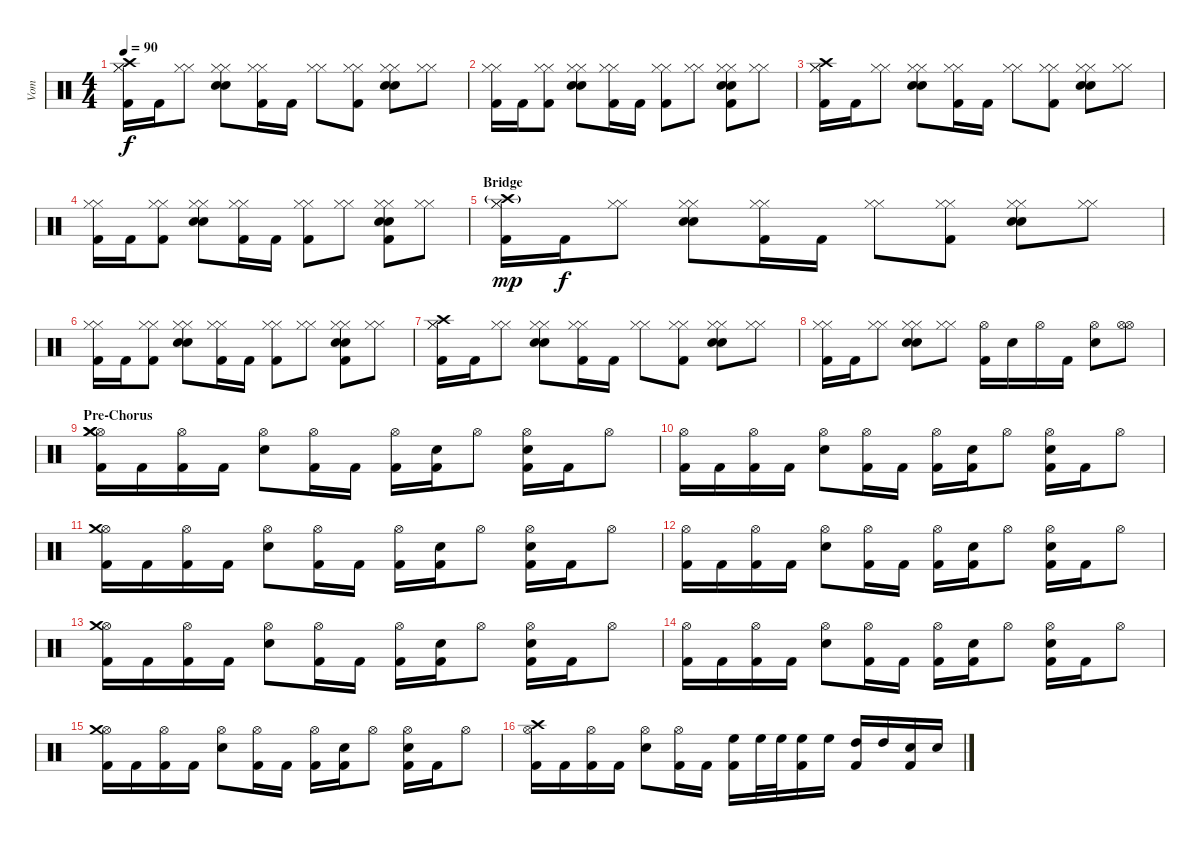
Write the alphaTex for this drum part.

\track ("Vom" "Vom") {instrument percussion}
\staff {score}
\articulation defaults
\ts (4 4)
\tempo 90
\clef neutral
\ks c
("Crash high (hit)" "Hi-Hat (closed)" "Hi-Hat (closed)" "Kick (hit) 2").16{dy f} "Kick (hit) 2".16 ("Hi-Hat (closed)" "Hi-Hat (closed)").8 ("Snare (hit) 2" "Snare (hit) 2" "Hi-Hat (closed)" "Hi-Hat (closed)").8 ("Hi-Hat (closed)" "Hi-Hat (closed)" "Kick (hit) 2").16 "Kick (hit) 2".16 ("Hi-Hat (closed)" "Hi-Hat (closed)").8 ("Hi-Hat (closed)" "Hi-Hat (closed)" "Kick (hit) 2").8 ("Snare (hit) 2" "Snare (hit) 2" "Hi-Hat (closed)" "Hi-Hat (closed)").8 ("Hi-Hat (closed)" "Hi-Hat (closed)").8 |
("Hi-Hat (closed)" "Hi-Hat (closed)" "Kick (hit) 2").16 "Kick (hit) 2".16 ("Hi-Hat (closed)" "Hi-Hat (closed)" "Kick (hit) 2").8 ("Snare (hit) 2" "Snare (hit) 2" "Hi-Hat (closed)" "Hi-Hat (closed)").8 ("Hi-Hat (closed)" "Hi-Hat (closed)" "Kick (hit) 2").16 "Kick (hit) 2".16 ("Hi-Hat (closed)" "Hi-Hat (closed)" "Kick (hit) 2").8 ("Hi-Hat (closed)" "Hi-Hat (closed)").8 ("Snare (hit) 2" "Snare (hit) 2" "Hi-Hat (closed)" "Hi-Hat (closed)" "Kick (hit) 2").8 ("Hi-Hat (closed)" "Hi-Hat (closed)").8 |
("Crash high (hit)" "Hi-Hat (closed)" "Hi-Hat (closed)" "Kick (hit) 2").16 "Kick (hit) 2".16 ("Hi-Hat (closed)" "Hi-Hat (closed)").8 ("Snare (hit) 2" "Snare (hit) 2" "Hi-Hat (closed)" "Hi-Hat (closed)").8 ("Hi-Hat (closed)" "Hi-Hat (closed)" "Kick (hit) 2").16 "Kick (hit) 2".16 ("Hi-Hat (closed)" "Hi-Hat (closed)").8 ("Hi-Hat (closed)" "Hi-Hat (closed)" "Kick (hit) 2").8 ("Snare (hit) 2" "Snare (hit) 2" "Hi-Hat (closed)" "Hi-Hat (closed)").8 ("Hi-Hat (closed)" "Hi-Hat (closed)").8 |
("Hi-Hat (closed)" "Hi-Hat (closed)" "Kick (hit) 2").16 "Kick (hit) 2".16 ("Hi-Hat (closed)" "Hi-Hat (closed)" "Kick (hit) 2").8 ("Snare (hit) 2" "Snare (hit) 2" "Hi-Hat (closed)" "Hi-Hat (closed)").8 ("Hi-Hat (closed)" "Hi-Hat (closed)" "Kick (hit) 2").16 "Kick (hit) 2".16 ("Hi-Hat (closed)" "Hi-Hat (closed)" "Kick (hit) 2").8 ("Hi-Hat (closed)" "Hi-Hat (closed)").8 ("Snare (hit) 2" "Snare (hit) 2" "Hi-Hat (closed)" "Hi-Hat (closed)" "Kick (hit) 2").8 ("Hi-Hat (closed)" "Hi-Hat (closed)").8 |
\section ("" "Bridge")
("Crash high (hit)"{g} "Hi-Hat (closed)" "Hi-Hat (closed)" "Kick (hit) 2").16{dy mp} "Kick (hit) 2".16{dy f} ("Hi-Hat (closed)" "Hi-Hat (closed)").8 ("Snare (hit) 2" "Snare (hit) 2" "Hi-Hat (closed)" "Hi-Hat (closed)").8 ("Hi-Hat (closed)" "Hi-Hat (closed)" "Kick (hit) 2").16 "Kick (hit) 2".16 ("Hi-Hat (closed)" "Hi-Hat (closed)").8 ("Hi-Hat (closed)" "Hi-Hat (closed)" "Kick (hit) 2").8 ("Snare (hit) 2" "Snare (hit) 2" "Hi-Hat (closed)" "Hi-Hat (closed)").8 ("Hi-Hat (closed)" "Hi-Hat (closed)").8 |
("Hi-Hat (closed)" "Hi-Hat (closed)" "Kick (hit) 2").16 "Kick (hit) 2".16 ("Hi-Hat (closed)" "Hi-Hat (closed)" "Kick (hit) 2").8 ("Snare (hit) 2" "Snare (hit) 2" "Hi-Hat (closed)" "Hi-Hat (closed)").8 ("Hi-Hat (closed)" "Hi-Hat (closed)" "Kick (hit) 2").16 "Kick (hit) 2".16 ("Hi-Hat (closed)" "Hi-Hat (closed)" "Kick (hit) 2").8 ("Hi-Hat (closed)" "Hi-Hat (closed)").8 ("Snare (hit) 2" "Snare (hit) 2" "Hi-Hat (closed)" "Hi-Hat (closed)" "Kick (hit) 2").8 ("Hi-Hat (closed)" "Hi-Hat (closed)").8 |
("Crash high (hit)" "Hi-Hat (closed)" "Hi-Hat (closed)" "Kick (hit) 2").16 "Kick (hit) 2".16 ("Hi-Hat (closed)" "Hi-Hat (closed)").8 ("Snare (hit) 2" "Snare (hit) 2" "Hi-Hat (closed)" "Hi-Hat (closed)").8 ("Hi-Hat (closed)" "Hi-Hat (closed)" "Kick (hit) 2").16 "Kick (hit) 2".16 ("Hi-Hat (closed)" "Hi-Hat (closed)").8 ("Hi-Hat (closed)" "Hi-Hat (closed)" "Kick (hit) 2").8 ("Snare (hit) 2" "Snare (hit) 2" "Hi-Hat (closed)" "Hi-Hat (closed)").8 ("Hi-Hat (closed)" "Hi-Hat (closed)").8 |
("Hi-Hat (closed)" "Hi-Hat (closed)" "Kick (hit) 2").16 "Kick (hit) 2".16 ("Hi-Hat (closed)" "Hi-Hat (closed)").8 ("Snare (hit) 2" "Snare (hit) 2" "Hi-Hat (closed)" "Hi-Hat (closed)").8 ("Hi-Hat (closed)" "Hi-Hat (closed)").8 ("Hi-Hat (open)" "Kick (hit) 2").16 "Snare (hit) 2".16 "Hi-Hat (open)".16 "Kick (hit) 2".16 ("Snare (hit) 2" "Hi-Hat (open)").8 ("Hi-Hat (open)" "Hi-Hat (open)").8 |
\section ("" "Pre-Chorus")
("Hi-Hat (open)" "Crash medium (hit)" "Crash medium (hit)" "Kick (hit) 2").16 "Kick (hit) 2".16 ("Hi-Hat (open)" "Kick (hit) 2").16 "Kick (hit) 2".16 ("Hi-Hat (open)" "Snare (hit) 2").8 ("Hi-Hat (open)" "Kick (hit) 2").16 "Kick (hit) 2".16 ("Hi-Hat (open)" "Kick (hit) 2").16 ("Snare (hit) 2" "Kick (hit) 2").16 "Hi-Hat (open)".8 ("Hi-Hat (open)" "Snare (hit) 2" "Kick (hit) 2").16 "Kick (hit) 2".16 "Hi-Hat (open)".8 |
("Hi-Hat (open)" "Kick (hit) 2").16 "Kick (hit) 2".16 ("Hi-Hat (open)" "Kick (hit) 2").16 "Kick (hit) 2".16 ("Hi-Hat (open)" "Snare (hit) 2").8 ("Hi-Hat (open)" "Kick (hit) 2").16 "Kick (hit) 2".16 ("Hi-Hat (open)" "Kick (hit) 2").16 ("Snare (hit) 2" "Kick (hit) 2").16 "Hi-Hat (open)".8 ("Hi-Hat (open)" "Snare (hit) 2" "Kick (hit) 2").16 "Kick (hit) 2".16 "Hi-Hat (open)".8 |
("Hi-Hat (open)" "Crash medium (hit)" "Kick (hit) 2").16 "Kick (hit) 2".16 ("Hi-Hat (open)" "Kick (hit) 2").16 "Kick (hit) 2".16 ("Hi-Hat (open)" "Snare (hit) 2").8 ("Hi-Hat (open)" "Kick (hit) 2").16 "Kick (hit) 2".16 ("Hi-Hat (open)" "Kick (hit) 2").16 ("Snare (hit) 2" "Kick (hit) 2").16 "Hi-Hat (open)".8 ("Hi-Hat (open)" "Snare (hit) 2" "Kick (hit) 2").16 "Kick (hit) 2".16 "Hi-Hat (open)".8 |
("Hi-Hat (open)" "Kick (hit) 2").16 "Kick (hit) 2".16 ("Hi-Hat (open)" "Kick (hit) 2").16 "Kick (hit) 2".16 ("Hi-Hat (open)" "Snare (hit) 2").8 ("Hi-Hat (open)" "Kick (hit) 2").16 "Kick (hit) 2".16 ("Hi-Hat (open)" "Kick (hit) 2").16 ("Snare (hit) 2" "Kick (hit) 2").16 "Hi-Hat (open)".8 ("Hi-Hat (open)" "Snare (hit) 2" "Kick (hit) 2").16 "Kick (hit) 2".16 "Hi-Hat (open)".8 |
("Hi-Hat (open)" "Crash medium (hit)" "Kick (hit) 2").16 "Kick (hit) 2".16 ("Hi-Hat (open)" "Kick (hit) 2").16 "Kick (hit) 2".16 ("Hi-Hat (open)" "Snare (hit) 2").8 ("Hi-Hat (open)" "Kick (hit) 2").16 "Kick (hit) 2".16 ("Hi-Hat (open)" "Kick (hit) 2").16 ("Snare (hit) 2" "Kick (hit) 2").16 "Hi-Hat (open)".8 ("Hi-Hat (open)" "Snare (hit) 2" "Kick (hit) 2").16 "Kick (hit) 2".16 "Hi-Hat (open)".8 |
("Hi-Hat (open)" "Kick (hit) 2").16 "Kick (hit) 2".16 ("Hi-Hat (open)" "Kick (hit) 2").16 "Kick (hit) 2".16 ("Hi-Hat (open)" "Snare (hit) 2").8 ("Hi-Hat (open)" "Kick (hit) 2").16 "Kick (hit) 2".16 ("Hi-Hat (open)" "Kick (hit) 2").16 ("Snare (hit) 2" "Kick (hit) 2").16 "Hi-Hat (open)".8 ("Hi-Hat (open)" "Snare (hit) 2" "Kick (hit) 2").16 "Kick (hit) 2".16 "Hi-Hat (open)".8 |
("Hi-Hat (open)" "Crash medium (hit)" "Kick (hit) 2").16 "Kick (hit) 2".16 ("Hi-Hat (open)" "Kick (hit) 2").16 "Kick (hit) 2".16 ("Hi-Hat (open)" "Snare (hit) 2").8 ("Hi-Hat (open)" "Kick (hit) 2").16 "Kick (hit) 2".16 ("Hi-Hat (open)" "Kick (hit) 2").16 ("Snare (hit) 2" "Kick (hit) 2").16 "Hi-Hat (open)".8 ("Hi-Hat (open)" "Snare (hit) 2" "Kick (hit) 2").16 "Kick (hit) 2".16 "Hi-Hat (open)".8 |
("Hi-Hat (open)" "Crash high (hit)" "Kick (hit) 2").16 "Kick (hit) 2".16 ("Hi-Hat (open)" "Kick (hit) 2").16 "Kick (hit) 2".16 ("Hi-Hat (open)" "Snare (hit) 2").8 ("Hi-Hat (open)" "Kick (hit) 2").16 "Kick (hit) 2".16 ("High Floor Tom (hit)" "Kick (hit) 2").16 "High Floor Tom (hit)".32 "High Floor Tom (hit)".32 ("High Floor Tom (hit)" "Kick (hit) 2").16 "High Floor Tom (hit)".16 ("High Tom (hit)" "Kick (hit) 2").16 "High Tom (hit)".16 ("Electric Snare (hit)" "Kick (hit) 2").16 "Electric Snare (hit)".16
